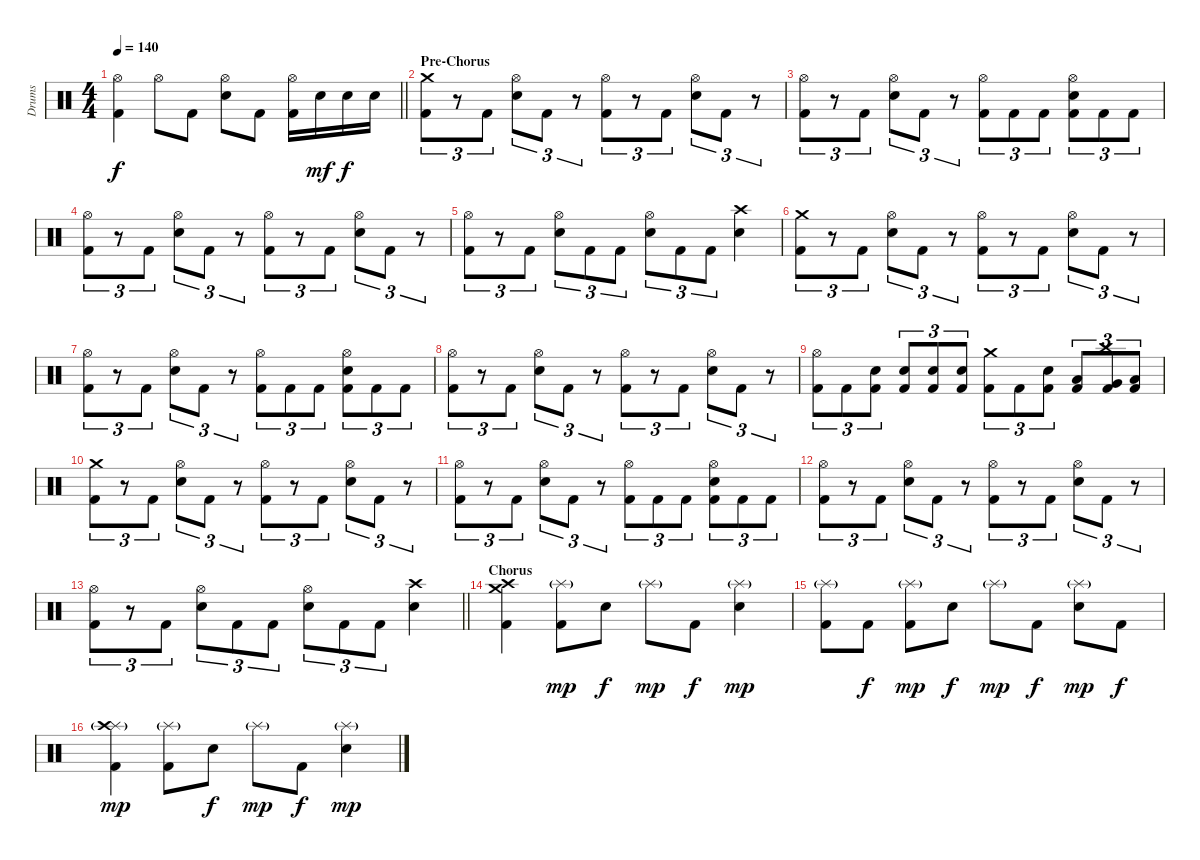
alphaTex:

\track ("Drums" "Drums") {instrument percussion}
\staff {score}
\articulation defaults
\ts (4 4)
\tempo 140
\clef neutral
\barLineRight lightlight
\ks c
("Hi-Hat (open)" "Kick (hit) 2").4{dy f} "Hi-Hat (open)".8 "Kick (hit) 2".8 ("Hi-Hat (open)" "Electric Snare (hit)").8 "Kick (hit) 2".8 ("Hi-Hat (open)" "Kick (hit) 2").16 "Electric Snare (hit)".16{dy mf} "Electric Snare (hit)".16{dy f} "Electric Snare (hit)".16 |
\section ("" "Pre-Chorus")
("Crash medium (hit)" "Kick (hit) 2").8{tu (3 2)} r.8{tu (3 2)} "Kick (hit) 2".8{tu (3 2)} ("Hi-Hat (open)" "Electric Snare (hit)").8{tu (3 2)} "Kick (hit) 2".8{tu (3 2)} r.8{tu (3 2)} ("Hi-Hat (open)" "Kick (hit) 2").8{tu (3 2)} r.8{tu (3 2)} "Kick (hit) 2".8{tu (3 2)} ("Hi-Hat (open)" "Electric Snare (hit)").8{tu (3 2)} "Kick (hit) 2".8{tu (3 2)} r.8{tu (3 2)} |
("Hi-Hat (open)" "Kick (hit) 2").8{tu (3 2)} r.8{tu (3 2)} "Kick (hit) 2".8{tu (3 2)} ("Hi-Hat (open)" "Electric Snare (hit)").8{tu (3 2)} "Kick (hit) 2".8{tu (3 2)} r.8{tu (3 2)} ("Hi-Hat (open)" "Kick (hit) 2").8{tu (3 2)} "Kick (hit) 2".8{tu (3 2)} "Kick (hit) 2".8{tu (3 2)} ("Hi-Hat (open)" "Electric Snare (hit)" "Kick (hit) 2").8{tu (3 2)} "Kick (hit) 2".8{tu (3 2)} "Kick (hit) 2".8{tu (3 2)} |
("Hi-Hat (open)" "Kick (hit) 2").8{tu (3 2)} r.8{tu (3 2)} "Kick (hit) 2".8{tu (3 2)} ("Hi-Hat (open)" "Electric Snare (hit)").8{tu (3 2)} "Kick (hit) 2".8{tu (3 2)} r.8{tu (3 2)} ("Hi-Hat (open)" "Kick (hit) 2").8{tu (3 2)} r.8{tu (3 2)} "Kick (hit) 2".8{tu (3 2)} ("Hi-Hat (open)" "Electric Snare (hit)").8{tu (3 2)} "Kick (hit) 2".8{tu (3 2)} r.8{tu (3 2)} |
("Hi-Hat (open)" "Kick (hit) 2").8{tu (3 2)} r.8{tu (3 2)} "Kick (hit) 2".8{tu (3 2)} ("Hi-Hat (open)" "Electric Snare (hit)").8{tu (3 2)} "Kick (hit) 2".8{tu (3 2)} "Kick (hit) 2".8{tu (3 2)} ("Hi-Hat (open)" "Electric Snare (hit)").8{tu (3 2)} "Kick (hit) 2".8{tu (3 2)} "Kick (hit) 2".8{tu (3 2)} ("Crash high (hit)" "Electric Snare (hit)").4 |
("Crash medium (hit)" "Kick (hit) 2").8{tu (3 2)} r.8{tu (3 2)} "Kick (hit) 2".8{tu (3 2)} ("Hi-Hat (open)" "Electric Snare (hit)").8{tu (3 2)} "Kick (hit) 2".8{tu (3 2)} r.8{tu (3 2)} ("Hi-Hat (open)" "Kick (hit) 2").8{tu (3 2)} r.8{tu (3 2)} "Kick (hit) 2".8{tu (3 2)} ("Hi-Hat (open)" "Electric Snare (hit)").8{tu (3 2)} "Kick (hit) 2".8{tu (3 2)} r.8{tu (3 2)} |
("Hi-Hat (open)" "Kick (hit) 2").8{tu (3 2)} r.8{tu (3 2)} "Kick (hit) 2".8{tu (3 2)} ("Hi-Hat (open)" "Electric Snare (hit)").8{tu (3 2)} "Kick (hit) 2".8{tu (3 2)} r.8{tu (3 2)} ("Hi-Hat (open)" "Kick (hit) 2").8{tu (3 2)} "Kick (hit) 2".8{tu (3 2)} "Kick (hit) 2".8{tu (3 2)} ("Hi-Hat (open)" "Electric Snare (hit)" "Kick (hit) 2").8{tu (3 2)} "Kick (hit) 2".8{tu (3 2)} "Kick (hit) 2".8{tu (3 2)} |
("Hi-Hat (open)" "Kick (hit) 2").8{tu (3 2)} r.8{tu (3 2)} "Kick (hit) 2".8{tu (3 2)} ("Hi-Hat (open)" "Electric Snare (hit)").8{tu (3 2)} "Kick (hit) 2".8{tu (3 2)} r.8{tu (3 2)} ("Hi-Hat (open)" "Kick (hit) 2").8{tu (3 2)} r.8{tu (3 2)} "Kick (hit) 2".8{tu (3 2)} ("Hi-Hat (open)" "Electric Snare (hit)").8{tu (3 2)} "Kick (hit) 2".8{tu (3 2)} r.8{tu (3 2)} |
("Hi-Hat (open)" "Kick (hit) 2").8{tu (3 2)} "Kick (hit) 2".8{tu (3 2)} ("Electric Snare (hit)" "Kick (hit) 2").8{tu (3 2)} ("Electric Snare (hit)" "Kick (hit) 2").8{tu (3 2)} ("Electric Snare (hit)" "Kick (hit) 2").8{tu (3 2)} ("Electric Snare (hit)" "Kick (hit) 2").8{tu (3 2)} ("Crash medium (hit)" "Kick (hit) 2").8{tu (3 2)} "Kick (hit) 2".8{tu (3 2)} ("Electric Snare (hit)" "Kick (hit) 2").8{tu (3 2)} ("Low Tom (hit)" "Kick (hit) 2").8{tu (3 2)} ("Crash high (hit)" "Very Low Tom (hit)" "Kick (hit) 2").8{tu (3 2)} ("Low Floor Tom (hit)" "Kick (hit) 2").8{tu (3 2)} |
("Crash medium (hit)" "Kick (hit) 2").8{tu (3 2)} r.8{tu (3 2)} "Kick (hit) 2".8{tu (3 2)} ("Hi-Hat (open)" "Electric Snare (hit)").8{tu (3 2)} "Kick (hit) 2".8{tu (3 2)} r.8{tu (3 2)} ("Hi-Hat (open)" "Kick (hit) 2").8{tu (3 2)} r.8{tu (3 2)} "Kick (hit) 2".8{tu (3 2)} ("Hi-Hat (open)" "Electric Snare (hit)").8{tu (3 2)} "Kick (hit) 2".8{tu (3 2)} r.8{tu (3 2)} |
("Hi-Hat (open)" "Kick (hit) 2").8{tu (3 2)} r.8{tu (3 2)} "Kick (hit) 2".8{tu (3 2)} ("Hi-Hat (open)" "Electric Snare (hit)").8{tu (3 2)} "Kick (hit) 2".8{tu (3 2)} r.8{tu (3 2)} ("Hi-Hat (open)" "Kick (hit) 2").8{tu (3 2)} "Kick (hit) 2".8{tu (3 2)} "Kick (hit) 2".8{tu (3 2)} ("Hi-Hat (open)" "Electric Snare (hit)" "Kick (hit) 2").8{tu (3 2)} "Kick (hit) 2".8{tu (3 2)} "Kick (hit) 2".8{tu (3 2)} |
("Hi-Hat (open)" "Kick (hit) 2").8{tu (3 2)} r.8{tu (3 2)} "Kick (hit) 2".8{tu (3 2)} ("Hi-Hat (open)" "Electric Snare (hit)").8{tu (3 2)} "Kick (hit) 2".8{tu (3 2)} r.8{tu (3 2)} ("Hi-Hat (open)" "Kick (hit) 2").8{tu (3 2)} r.8{tu (3 2)} "Kick (hit) 2".8{tu (3 2)} ("Hi-Hat (open)" "Electric Snare (hit)").8{tu (3 2)} "Kick (hit) 2".8{tu (3 2)} r.8{tu (3 2)} |
\barLineRight lightlight
("Hi-Hat (open)" "Kick (hit) 2").8{tu (3 2)} r.8{tu (3 2)} "Kick (hit) 2".8{tu (3 2)} ("Hi-Hat (open)" "Electric Snare (hit)").8{tu (3 2)} "Kick (hit) 2".8{tu (3 2)} "Kick (hit) 2".8{tu (3 2)} ("Hi-Hat (open)" "Electric Snare (hit)").8{tu (3 2)} "Kick (hit) 2".8{tu (3 2)} "Kick (hit) 2".8{tu (3 2)} ("Crash high (hit)" "Electric Snare (hit)").4 |
\section ("" "Chorus")
("Crash medium (hit)" "Crash high (hit)" "Kick (hit) 2").4 ("Splash (hit)"{g} "Kick (hit) 2").8{dy mp} "Electric Snare (hit)".8{dy f} "Splash (hit)"{g}.8{dy mp} "Kick (hit) 2".8{dy f} ("Splash (hit)"{g} "Electric Snare (hit)").4{dy mp} |
("Splash (hit)"{g} "Kick (hit) 2").8 "Kick (hit) 2".8{dy f} ("Splash (hit)"{g} "Kick (hit) 2").8{dy mp} "Electric Snare (hit)".8{dy f} "Splash (hit)"{g}.8{dy mp} "Kick (hit) 2".8{dy f} ("Splash (hit)"{g} "Electric Snare (hit)").8{dy mp} "Kick (hit) 2".8{dy f} |
("Splash (hit)"{g} "Crash high (hit)" "Kick (hit) 2").4{dy mp} ("Splash (hit)"{g} "Kick (hit) 2").8 "Electric Snare (hit)".8{dy f} "Splash (hit)"{g}.8{dy mp} "Kick (hit) 2".8{dy f} ("Splash (hit)"{g} "Electric Snare (hit)").4{dy mp}
